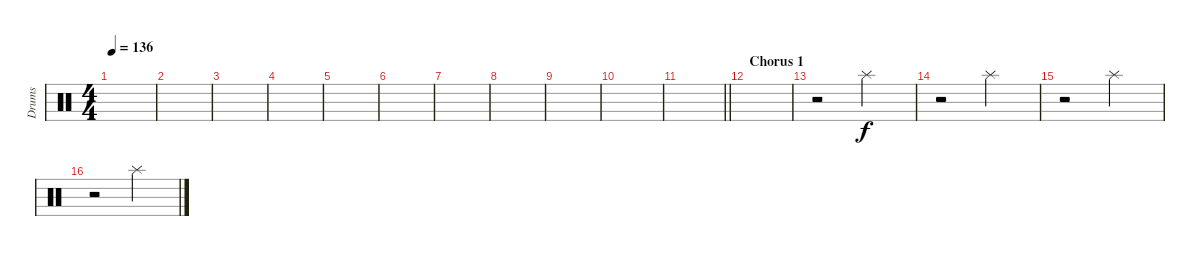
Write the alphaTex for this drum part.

\track ("Drums" "Drums") {instrument percussion}
\staff {score}
\articulation defaults
\ts (4 4)
\tempo 136
\clef neutral
\ks c
|
|
|
|
|
|
|
|
|
|
\barLineRight lightlight
|
\section ("" "Chorus 1")
|
r.2 "Splash (hit)".2 |
r.2 "Splash (hit)".2 |
r.2 "Splash (hit)".2 |
r.2 "Splash (hit)".2
